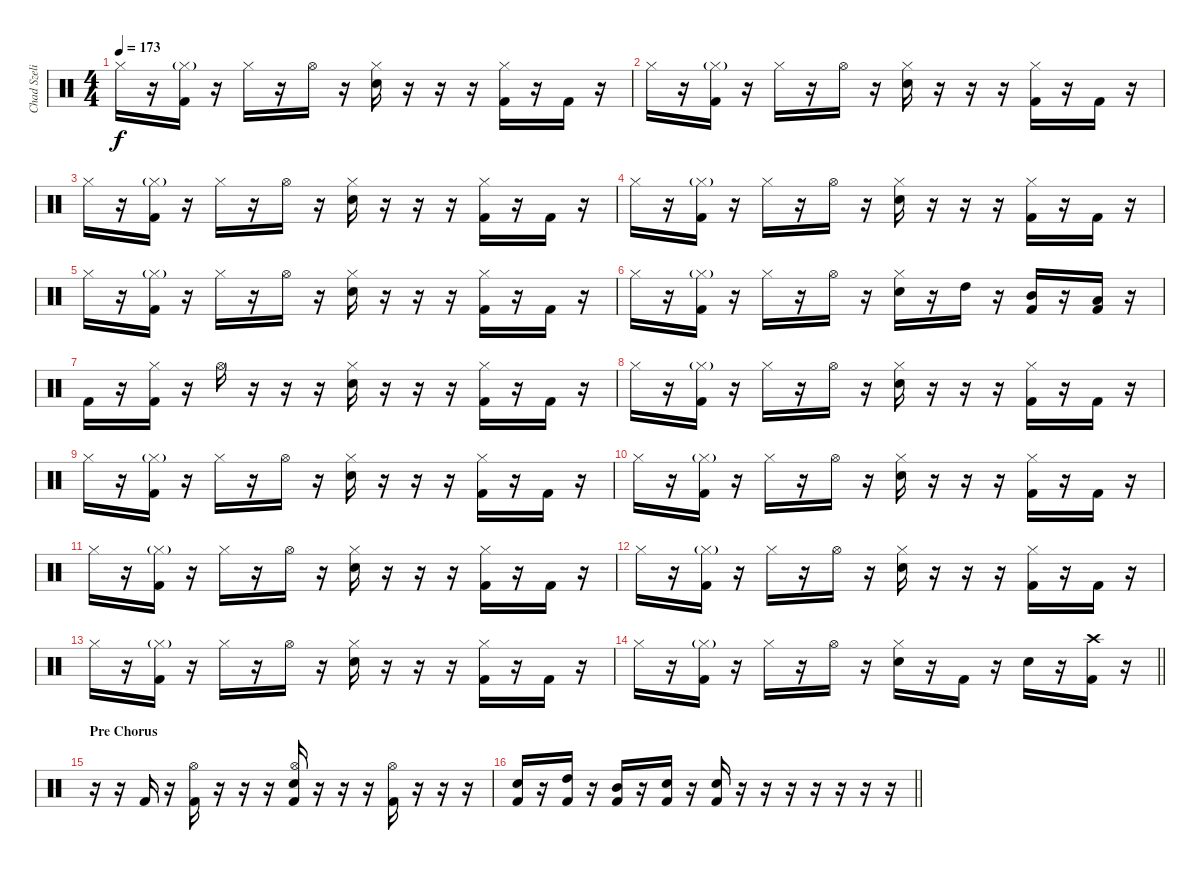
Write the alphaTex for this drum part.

\track ("Chad Szeliga" "Chad Szeli") {instrument percussion}
\staff {score}
\articulation defaults
\ts (4 4)
\tempo 173
\clef neutral
\ks c "Hi-Hat (closed)".16{dy f}
r.16 ("Hi-Hat (closed)"{g} "Kick (hit) 2").16 r.16 "Hi-Hat (closed)".16 r.16 "Hi-Hat (open)".16 r.16 ("Hi-Hat (closed)" "Electric Snare (hit)").16 r.16 r.16 r.16 ("Hi-Hat (closed)" "Kick (hit) 2").16 r.16 "Kick (hit) 2".16 r.16 |
"Hi-Hat (closed)".16 r.16 ("Hi-Hat (closed)"{g} "Kick (hit) 2").16 r.16 "Hi-Hat (closed)".16 r.16 "Hi-Hat (open)".16 r.16 ("Hi-Hat (closed)" "Electric Snare (hit)").16 r.16 r.16 r.16 ("Hi-Hat (closed)" "Kick (hit) 2").16 r.16 "Kick (hit) 2".16 r.16 |
"Hi-Hat (closed)".16 r.16 ("Hi-Hat (closed)"{g} "Kick (hit) 2").16 r.16 "Hi-Hat (closed)".16 r.16 "Hi-Hat (open)".16 r.16 ("Hi-Hat (closed)" "Electric Snare (hit)").16 r.16 r.16 r.16 ("Hi-Hat (closed)" "Kick (hit) 2").16 r.16 "Kick (hit) 2".16 r.16 |
"Hi-Hat (closed)".16 r.16 ("Hi-Hat (closed)"{g} "Kick (hit) 2").16 r.16 "Hi-Hat (closed)".16 r.16 "Hi-Hat (open)".16 r.16 ("Hi-Hat (closed)" "Electric Snare (hit)").16 r.16 r.16 r.16 ("Hi-Hat (closed)" "Kick (hit) 2").16 r.16 "Kick (hit) 2".16 r.16 |
"Hi-Hat (closed)".16 r.16 ("Hi-Hat (closed)"{g} "Kick (hit) 2").16 r.16 "Hi-Hat (closed)".16 r.16 "Hi-Hat (open)".16 r.16 ("Hi-Hat (closed)" "Electric Snare (hit)").16 r.16 r.16 r.16 ("Hi-Hat (closed)" "Kick (hit) 2").16 r.16 "Kick (hit) 2".16 r.16 |
"Hi-Hat (closed)".16 r.16 ("Hi-Hat (closed)"{g} "Kick (hit) 2").16 r.16 "Hi-Hat (closed)".16 r.16 "Hi-Hat (open)".16 r.16 ("Hi-Hat (closed)" "Electric Snare (hit)").16 r.16 "High Tom (hit)".16 r.16 ("Mid Tom (hit)" "Kick (hit) 2").16 r.16 ("Low Tom (hit)" "Kick (hit) 2").16 r.16 |
"Kick (hit) 2".16 r.16 ("Hi-Hat (closed)" "Kick (hit) 2").16 r.16 "Hi-Hat (open)".16 r.16 r.16 r.16 ("Hi-Hat (closed)" "Electric Snare (hit)").16 r.16 r.16 r.16 ("Hi-Hat (closed)" "Kick (hit) 2").16 r.16 "Kick (hit) 2".16 r.16 |
"Hi-Hat (closed)".16 r.16 ("Hi-Hat (closed)"{g} "Kick (hit) 2").16 r.16 "Hi-Hat (closed)".16 r.16 "Hi-Hat (open)".16 r.16 ("Hi-Hat (closed)" "Electric Snare (hit)").16 r.16 r.16 r.16 ("Hi-Hat (closed)" "Kick (hit) 2").16 r.16 "Kick (hit) 2".16 r.16 |
"Hi-Hat (closed)".16 r.16 ("Hi-Hat (closed)"{g} "Kick (hit) 2").16 r.16 "Hi-Hat (closed)".16 r.16 "Hi-Hat (open)".16 r.16 ("Hi-Hat (closed)" "Electric Snare (hit)").16 r.16 r.16 r.16 ("Hi-Hat (closed)" "Kick (hit) 2").16 r.16 "Kick (hit) 2".16 r.16 |
"Hi-Hat (closed)".16 r.16 ("Hi-Hat (closed)"{g} "Kick (hit) 2").16 r.16 "Hi-Hat (closed)".16 r.16 "Hi-Hat (open)".16 r.16 ("Hi-Hat (closed)" "Electric Snare (hit)").16 r.16 r.16 r.16 ("Hi-Hat (closed)" "Kick (hit) 2").16 r.16 "Kick (hit) 2".16 r.16 |
"Hi-Hat (closed)".16 r.16 ("Hi-Hat (closed)"{g} "Kick (hit) 2").16 r.16 "Hi-Hat (closed)".16 r.16 "Hi-Hat (open)".16 r.16 ("Hi-Hat (closed)" "Electric Snare (hit)").16 r.16 r.16 r.16 ("Hi-Hat (closed)" "Kick (hit) 2").16 r.16 "Kick (hit) 2".16 r.16 |
"Hi-Hat (closed)".16 r.16 ("Hi-Hat (closed)"{g} "Kick (hit) 2").16 r.16 "Hi-Hat (closed)".16 r.16 "Hi-Hat (open)".16 r.16 ("Hi-Hat (closed)" "Electric Snare (hit)").16 r.16 r.16 r.16 ("Hi-Hat (closed)" "Kick (hit) 2").16 r.16 "Kick (hit) 2".16 r.16 |
"Hi-Hat (closed)".16 r.16 ("Hi-Hat (closed)"{g} "Kick (hit) 2").16 r.16 "Hi-Hat (closed)".16 r.16 "Hi-Hat (open)".16 r.16 ("Hi-Hat (closed)" "Electric Snare (hit)").16 r.16 r.16 r.16 ("Hi-Hat (closed)" "Kick (hit) 2").16 r.16 "Kick (hit) 2".16 r.16 |
\barLineRight lightlight "Hi-Hat (closed)".16
r.16 ("Hi-Hat (closed)"{g} "Kick (hit) 2").16 r.16 "Hi-Hat (closed)".16 r.16 "Hi-Hat (open)".16 r.16 ("Hi-Hat (closed)" "Electric Snare (hit)").16 r.16 "Kick (hit) 2".16 r.16 "Electric Snare (hit)".16 r.16 ("Crash high (hit)" "Kick (hit) 2").16 r.16 |
\section ("" "Pre Chorus")
r.16 r.16 "Kick (hit) 2".16 r.16 ("Hi-Hat (open)" "Kick (hit) 2").16 r.16 r.16 r.16 ("Hi-Hat (open)" "Electric Snare (hit)" "Kick (hit) 2").16 r.16 r.16 r.16 ("Hi-Hat (open)" "Kick (hit) 2").16 r.16 r.16 r.16 |
\barLineRight lightlight
("Electric Snare (hit)" "Kick (hit) 2").16 r.16 ("High Tom (hit)" "Kick (hit) 2").16 r.16 ("Mid Tom (hit)" "Kick (hit) 2").16 r.16 ("Electric Snare (hit)" "Kick (hit) 2").16 r.16 ("Electric Snare (hit)" "Kick (hit) 2").16 r.16 r.16 r.16 r.16 r.16 r.16 r.16
